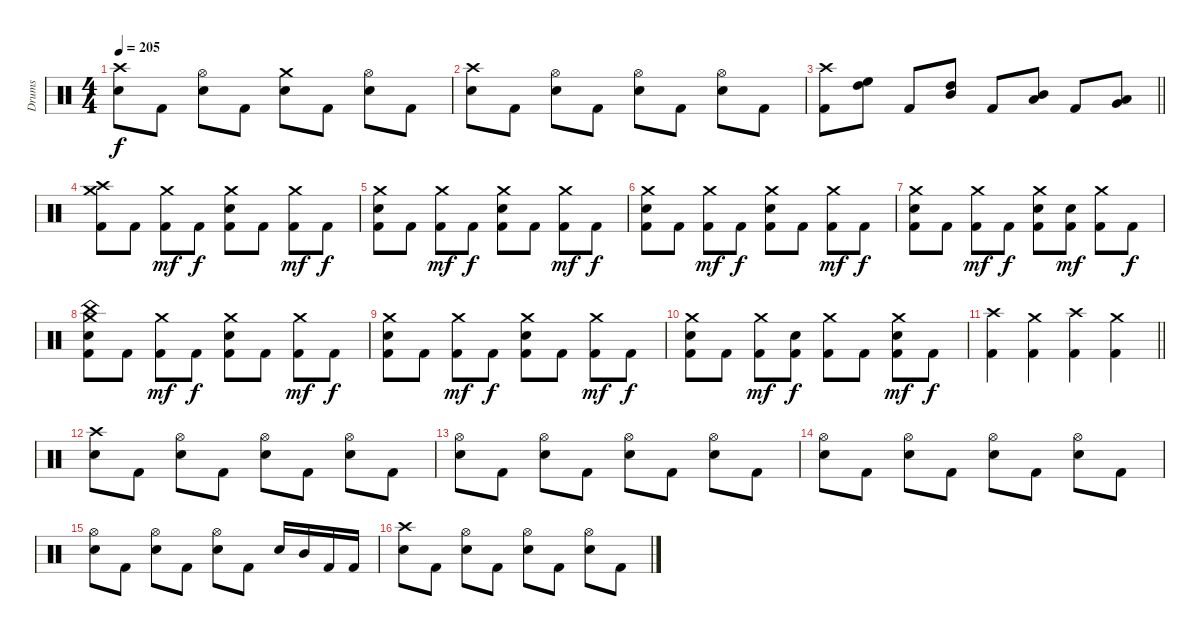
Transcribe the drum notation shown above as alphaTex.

\track ("Drums" "Drums") {instrument percussion}
\staff {score}
\articulation defaults
\ts (4 4)
\tempo 205
\clef neutral
\ks c
("Crash high (hit)" "Electric Snare (hit)").8{dy f} "Kick (hit) 2".8 ("Hi-Hat (open)" "Electric Snare (hit)").8 "Kick (hit) 2".8 ("Crash medium (hit)" "Electric Snare (hit)").8 "Kick (hit) 2".8 ("Hi-Hat (open)" "Electric Snare (hit)").8 "Kick (hit) 2".8 |
("Crash high (hit)" "Electric Snare (hit)").8 "Kick (hit) 2".8 ("Hi-Hat (open)" "Electric Snare (hit)").8 "Kick (hit) 2".8 ("Hi-Hat (open)" "Electric Snare (hit)").8 "Kick (hit) 2".8 ("Hi-Hat (open)" "Electric Snare (hit)").8 "Kick (hit) 2".8 |
\barLineRight lightlight
("Crash high (hit)" "Kick (hit) 2").8 ("High Floor Tom (hit)" "High Tom (hit)").8 "Kick (hit) 2".8 ("High Tom (hit)" "Mid Tom (hit)").8 "Kick (hit) 2".8 ("Mid Tom (hit)" "Low Tom (hit)").8 "Kick (hit) 2".8 ("Low Tom (hit)" "Very Low Tom (hit)").8 |
("Crash high (hit)" "Crash medium (hit)" "Kick (hit) 2").8 "Kick (hit) 2".8 ("Crash medium (hit)" "Kick (hit) 2").8{dy mf} "Kick (hit) 2".8{dy f} ("Crash medium (hit)" "Electric Snare (hit)" "Kick (hit) 2").8 "Kick (hit) 2".8 ("Crash medium (hit)" "Kick (hit) 2").8{dy mf} "Kick (hit) 2".8{dy f} |
("Crash medium (hit)" "Electric Snare (hit)" "Kick (hit) 2").8 "Kick (hit) 2".8 ("Crash medium (hit)" "Kick (hit) 2").8{dy mf} "Kick (hit) 2".8{dy f} ("Crash medium (hit)" "Electric Snare (hit)" "Kick (hit) 2").8 "Kick (hit) 2".8 ("Crash medium (hit)" "Kick (hit) 2").8{dy mf} "Kick (hit) 2".8{dy f} |
("Crash medium (hit)" "Electric Snare (hit)" "Kick (hit) 2").8 "Kick (hit) 2".8 ("Crash medium (hit)" "Kick (hit) 2").8{dy mf} "Kick (hit) 2".8{dy f} ("Crash medium (hit)" "Electric Snare (hit)" "Kick (hit) 2").8 "Kick (hit) 2".8 ("Crash medium (hit)" "Kick (hit) 2").8{dy mf} "Kick (hit) 2".8{dy f} |
("Crash medium (hit)" "Electric Snare (hit)" "Kick (hit) 2").8 "Kick (hit) 2".8 ("Crash medium (hit)" "Kick (hit) 2").8{dy mf} "Kick (hit) 2".8{dy f} ("Crash medium (hit)" "Electric Snare (hit)" "Kick (hit) 2").8 ("Electric Snare (hit)" "Kick (hit) 2").8{dy mf} ("Crash medium (hit)" "Kick (hit) 2").8 "Kick (hit) 2".8{dy f} |
("China (hit)" "Crash medium (hit)" "Electric Snare (hit)" "Kick (hit) 2").8 "Kick (hit) 2".8 ("Crash medium (hit)" "Kick (hit) 2").8{dy mf} "Kick (hit) 2".8{dy f} ("Crash medium (hit)" "Electric Snare (hit)" "Kick (hit) 2").8 "Kick (hit) 2".8 ("Crash medium (hit)" "Kick (hit) 2").8{dy mf} "Kick (hit) 2".8{dy f} |
("Crash medium (hit)" "Electric Snare (hit)" "Kick (hit) 2").8 "Kick (hit) 2".8 ("Crash medium (hit)" "Kick (hit) 2").8{dy mf} "Kick (hit) 2".8{dy f} ("Crash medium (hit)" "Electric Snare (hit)" "Kick (hit) 2").8 "Kick (hit) 2".8 ("Crash medium (hit)" "Kick (hit) 2").8{dy mf} "Kick (hit) 2".8{dy f} |
("Crash medium (hit)" "Electric Snare (hit)" "Kick (hit) 2").8 "Kick (hit) 2".8 ("Crash medium (hit)" "Kick (hit) 2").8{dy mf} ("Electric Snare (hit)" "Kick (hit) 2").8{dy f} ("Crash medium (hit)" "Kick (hit) 2").8 "Kick (hit) 2".8 ("Crash medium (hit)" "Electric Snare (hit)" "Kick (hit) 2").8{dy mf} "Kick (hit) 2".8{dy f} |
\barLineRight lightlight
("Crash high (hit)" "Kick (hit) 2").4 ("Crash medium (hit)" "Kick (hit) 2").4 ("Crash high (hit)" "Kick (hit) 2").4 ("Crash medium (hit)" "Kick (hit) 2").4 |
("Crash high (hit)" "Electric Snare (hit)").8 "Kick (hit) 2".8 ("Hi-Hat (open)" "Electric Snare (hit)").8 "Kick (hit) 2".8 ("Hi-Hat (open)" "Electric Snare (hit)").8 "Kick (hit) 2".8 ("Hi-Hat (open)" "Electric Snare (hit)").8 "Kick (hit) 2".8 |
("Hi-Hat (open)" "Electric Snare (hit)").8 "Kick (hit) 2".8 ("Hi-Hat (open)" "Electric Snare (hit)").8 "Kick (hit) 2".8 ("Hi-Hat (open)" "Electric Snare (hit)").8 "Kick (hit) 2".8 ("Hi-Hat (open)" "Electric Snare (hit)").8 "Kick (hit) 2".8 |
("Hi-Hat (open)" "Electric Snare (hit)").8 "Kick (hit) 2".8 ("Hi-Hat (open)" "Electric Snare (hit)").8 "Kick (hit) 2".8 ("Hi-Hat (open)" "Electric Snare (hit)").8 "Kick (hit) 2".8 ("Hi-Hat (open)" "Electric Snare (hit)").8 "Kick (hit) 2".8 |
("Hi-Hat (open)" "Electric Snare (hit)").8 "Kick (hit) 2".8 ("Hi-Hat (open)" "Electric Snare (hit)").8 "Kick (hit) 2".8 ("Hi-Hat (open)" "Electric Snare (hit)").8 "Kick (hit) 2".8 "Electric Snare (hit)".16 "Mid Tom (hit)".16 "Kick (hit) 2".16 "Kick (hit) 2".16 |
("Crash high (hit)" "Electric Snare (hit)").8 "Kick (hit) 2".8 ("Hi-Hat (open)" "Electric Snare (hit)").8 "Kick (hit) 2".8 ("Hi-Hat (open)" "Electric Snare (hit)").8 "Kick (hit) 2".8 ("Hi-Hat (open)" "Electric Snare (hit)").8 "Kick (hit) 2".8
